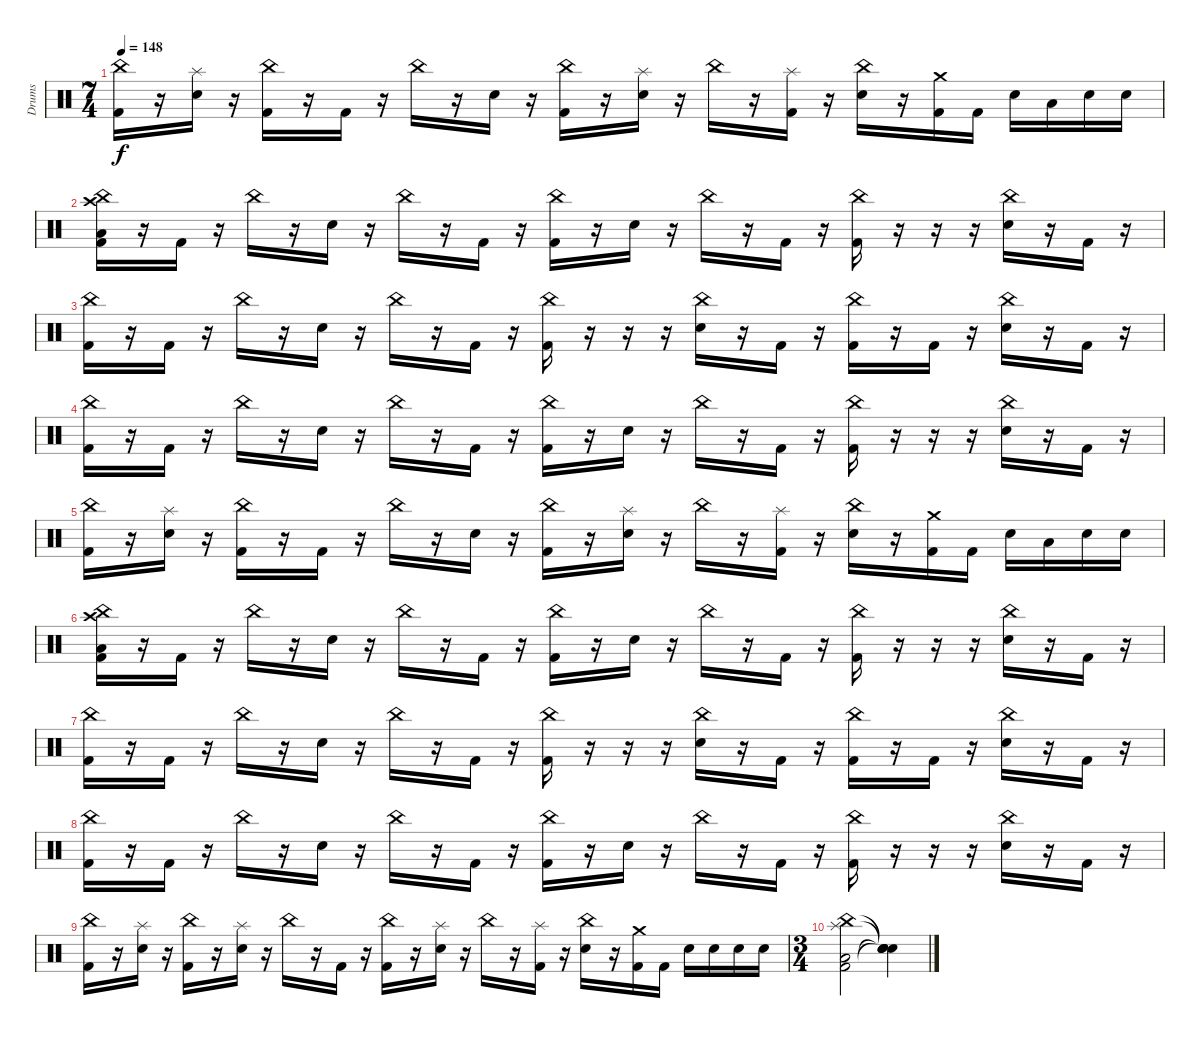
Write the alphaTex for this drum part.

\track ("Drums" "Drums") {instrument percussion}
\staff {score}
\articulation defaults
\ts (7 4)
\tempo 148
\clef neutral
\ks c
("China (hit)" "Kick (hit) 2").16{dy f} r.16 ("Splash (hit)" "Electric Snare (hit)").16 r.16 ("China (hit)" "Kick (hit) 2").16 r.16 "Kick (hit) 2".16 r.16 "China (hit)".16 r.16 "Electric Snare (hit)".16 r.16 ("China (hit)" "Kick (hit) 2").16 r.16 ("Splash (hit)" "Electric Snare (hit)").16 r.16 "China (hit)".16 r.16 ("Splash (hit)" "Kick (hit) 2").16 r.16 ("China (hit)" "Electric Snare (hit)").16 r.16 ("Crash medium (hit)" "Kick (hit) 2").16 "Kick (hit) 2".16 "Electric Snare (hit)".16 "Low Tom (hit)".16 "Electric Snare (hit)".16 "Electric Snare (hit)".16 |
("Crash high (hit)" "China (hit)" "Low Floor Tom (hit)" "Kick (hit) 2").16 r.16 "Kick (hit) 2".16 r.16 "China (hit)".16 r.16 "Electric Snare (hit)".16 r.16 "China (hit)".16 r.16 "Kick (hit) 2".16 r.16 ("China (hit)" "Kick (hit) 2").16 r.16 "Electric Snare (hit)".16 r.16 "China (hit)".16 r.16 "Kick (hit) 2".16 r.16 ("China (hit)" "Kick (hit) 2").16 r.16 r.16 r.16 ("China (hit)" "Electric Snare (hit)").16 r.16 "Kick (hit) 2".16 r.16 |
("China (hit)" "Kick (hit) 2").16 r.16 "Kick (hit) 2".16 r.16 "China (hit)".16 r.16 "Electric Snare (hit)".16 r.16 "China (hit)".16 r.16 "Kick (hit) 2".16 r.16 ("China (hit)" "Kick (hit) 2").16 r.16 r.16 r.16 ("China (hit)" "Electric Snare (hit)").16 r.16 "Kick (hit) 2".16 r.16 ("China (hit)" "Kick (hit) 2").16 r.16 "Kick (hit) 2".16 r.16 ("China (hit)" "Electric Snare (hit)").16 r.16 "Kick (hit) 2".16 r.16 |
("China (hit)" "Kick (hit) 2").16 r.16 "Kick (hit) 2".16 r.16 "China (hit)".16 r.16 "Electric Snare (hit)".16 r.16 "China (hit)".16 r.16 "Kick (hit) 2".16 r.16 ("China (hit)" "Kick (hit) 2").16 r.16 "Electric Snare (hit)".16 r.16 "China (hit)".16 r.16 "Kick (hit) 2".16 r.16 ("China (hit)" "Kick (hit) 2").16 r.16 r.16 r.16 ("China (hit)" "Electric Snare (hit)").16 r.16 "Kick (hit) 2".16 r.16 |
("China (hit)" "Kick (hit) 2").16 r.16 ("Splash (hit)" "Electric Snare (hit)").16 r.16 ("China (hit)" "Kick (hit) 2").16 r.16 "Kick (hit) 2".16 r.16 "China (hit)".16 r.16 "Electric Snare (hit)".16 r.16 ("China (hit)" "Kick (hit) 2").16 r.16 ("Splash (hit)" "Electric Snare (hit)").16 r.16 "China (hit)".16 r.16 ("Splash (hit)" "Kick (hit) 2").16 r.16 ("China (hit)" "Electric Snare (hit)").16 r.16 ("Crash medium (hit)" "Kick (hit) 2").16 "Kick (hit) 2".16 "Electric Snare (hit)".16 "Low Tom (hit)".16 "Electric Snare (hit)".16 "Electric Snare (hit)".16 |
("Crash high (hit)" "China (hit)" "Low Floor Tom (hit)" "Kick (hit) 2").16 r.16 "Kick (hit) 2".16 r.16 "China (hit)".16 r.16 "Electric Snare (hit)".16 r.16 "China (hit)".16 r.16 "Kick (hit) 2".16 r.16 ("China (hit)" "Kick (hit) 2").16 r.16 "Electric Snare (hit)".16 r.16 "China (hit)".16 r.16 "Kick (hit) 2".16 r.16 ("China (hit)" "Kick (hit) 2").16 r.16 r.16 r.16 ("China (hit)" "Electric Snare (hit)").16 r.16 "Kick (hit) 2".16 r.16 |
("China (hit)" "Kick (hit) 2").16 r.16 "Kick (hit) 2".16 r.16 "China (hit)".16 r.16 "Electric Snare (hit)".16 r.16 "China (hit)".16 r.16 "Kick (hit) 2".16 r.16 ("China (hit)" "Kick (hit) 2").16 r.16 r.16 r.16 ("China (hit)" "Electric Snare (hit)").16 r.16 "Kick (hit) 2".16 r.16 ("China (hit)" "Kick (hit) 2").16 r.16 "Kick (hit) 2".16 r.16 ("China (hit)" "Electric Snare (hit)").16 r.16 "Kick (hit) 2".16 r.16 |
("China (hit)" "Kick (hit) 2").16 r.16 "Kick (hit) 2".16 r.16 "China (hit)".16 r.16 "Electric Snare (hit)".16 r.16 "China (hit)".16 r.16 "Kick (hit) 2".16 r.16 ("China (hit)" "Kick (hit) 2").16 r.16 "Electric Snare (hit)".16 r.16 "China (hit)".16 r.16 "Kick (hit) 2".16 r.16 ("China (hit)" "Kick (hit) 2").16 r.16 r.16 r.16 ("China (hit)" "Electric Snare (hit)").16 r.16 "Kick (hit) 2".16 r.16 |
("China (hit)" "Kick (hit) 2").16 r.16 ("Splash (hit)" "Electric Snare (hit)").16 r.16 ("China (hit)" "Kick (hit) 2").16 r.16 ("Splash (hit)" "Electric Snare (hit)").16 r.16 "China (hit)".16 r.16 "Kick (hit) 2".16 r.16 ("China (hit)" "Kick (hit) 2").16 r.16 ("Splash (hit)" "Electric Snare (hit)").16 r.16 "China (hit)".16 r.16 ("Splash (hit)" "Kick (hit) 2").16 r.16 ("China (hit)" "Electric Snare (hit)").16 r.16 ("Crash medium (hit)" "Kick (hit) 2").16 "Kick (hit) 2".16 "Electric Snare (hit)".16 "Electric Snare (hit)".16 "Electric Snare (hit)".16 "Electric Snare (hit)".16 |
\ts (3 4)
("China (hit)" "Splash (hit)" "Low Floor Tom (hit)" "Kick (hit) 2").2 ("Snare (hit)"{t} "Snare (hit)"{t} "Snare (hit)"{t} "Snare (hit)"{t}).4
